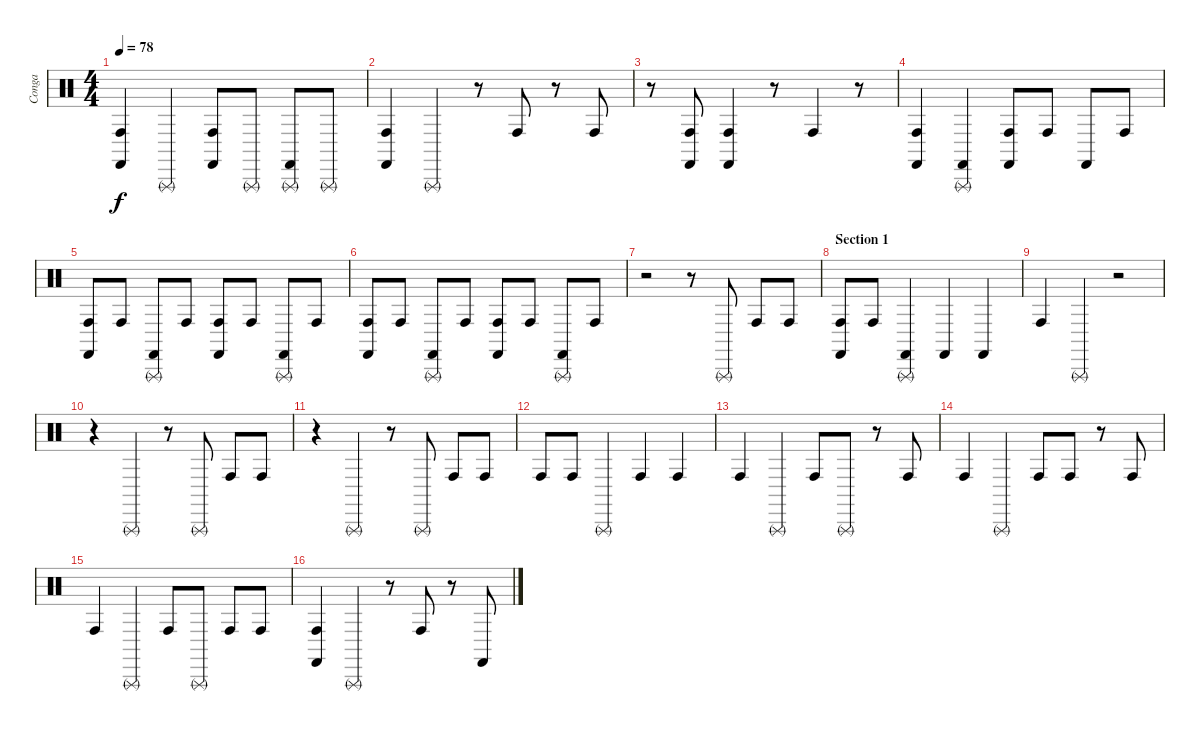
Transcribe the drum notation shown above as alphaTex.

\track ("Conga" "Conga") {instrument percussion}
\staff {score}
\articulation defaults
\ts (4 4)
\tempo 78
\clef neutral
\ks c
("Castanets (hit)" "Conga high (hit)").4{dy f} "Triangle (rnute)".4 ("Castanets (hit)" "Conga high (hit)").8 "Triangle (rnute)".8 ("Triangle (rnute)" "Castanets (hit)").8 "Triangle (rnute)".8 |
("Castanets (hit)" "Conga high (hit)").4 "Triangle (rnute)".4 r.8 "Conga high (hit)".8 r.8 "Conga high (hit)".8 |
r.8 ("Castanets (hit)" "Conga high (hit)").8 ("Castanets (hit)" "Conga high (hit)").4 r.8 "Conga high (hit)".4 r.8 |
("Castanets (hit)" "Conga high (hit)").4 ("Triangle (rnute)" "Castanets (hit)").4 ("Castanets (hit)" "Conga high (hit)").8 "Conga high (hit)".8 "Castanets (hit)".8 "Conga high (hit)".8 |
("Castanets (hit)" "Conga high (hit)").8 "Conga high (hit)".8 ("Castanets (hit)" "Triangle (rnute)").8 "Conga high (hit)".8 ("Castanets (hit)" "Conga high (hit)").8 "Conga high (hit)".8 ("Castanets (hit)" "Triangle (rnute)").8 "Conga high (hit)".8 |
("Castanets (hit)" "Conga high (hit)").8 "Conga high (hit)".8 ("Castanets (hit)" "Triangle (rnute)").8 "Conga high (hit)".8 ("Castanets (hit)" "Conga high (hit)").8 "Conga high (hit)".8 ("Castanets (hit)" "Triangle (rnute)").8 "Conga high (hit)".8 |
r.2 r.8 "Triangle (rnute)".8 "Conga high (hit)".8 "Conga high (hit)".8 |
\section ("" "Section 1")
("Castanets (hit)" "Conga high (hit)").8 "Conga high (hit)".8 ("Triangle (rnute)" "Castanets (hit)").4 "Castanets (hit)".4 "Castanets (hit)".4 |
"Conga high (hit)".4 "Triangle (rnute)".4 r.2 |
r.4 "Triangle (rnute)".4 r.8 "Triangle (rnute)".8 "Conga high (hit)".8 "Conga high (hit)".8 |
r.4 "Triangle (rnute)".4 r.8 "Triangle (rnute)".8 "Conga high (hit)".8 "Conga high (hit)".8 |
"Conga high (hit)".8 "Conga high (hit)".8 "Triangle (rnute)".4 "Conga high (hit)".4 "Conga high (hit)".4 |
"Conga high (hit)".4 "Triangle (rnute)".4 "Conga high (hit)".8 "Triangle (rnute)".8 r.8 "Conga high (hit)".8 |
"Conga high (hit)".4 "Triangle (rnute)".4 "Conga high (hit)".8 "Conga high (hit)".8 r.8 "Conga high (hit)".8 |
"Conga high (hit)".4 "Triangle (rnute)".4 "Conga high (hit)".8 "Triangle (rnute)".8 "Conga high (hit)".8 "Conga high (hit)".8 |
("Castanets (hit)" "Conga high (hit)").4 "Triangle (rnute)".4 r.8 "Conga high (hit)".8 r.8 "Castanets (hit)".8
